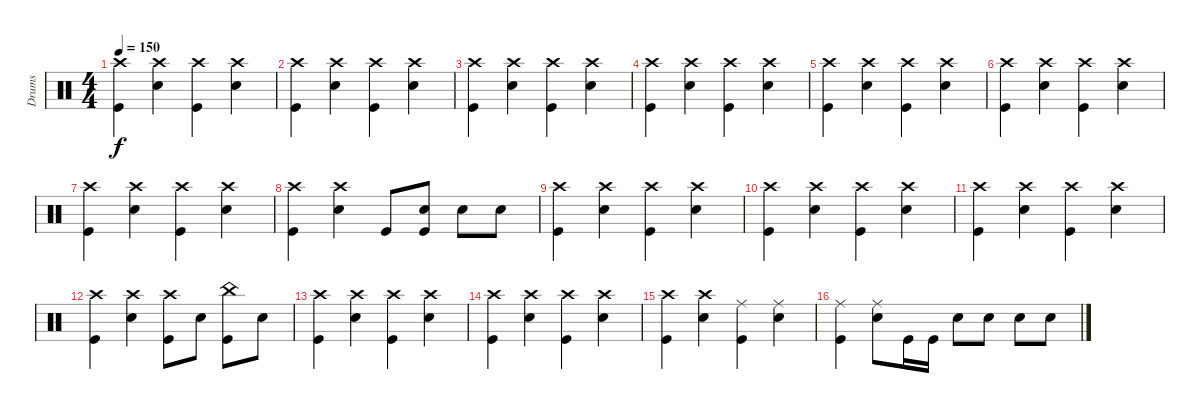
\track ("Drums" "Drums") {instrument percussion}
\staff {score}
\articulation defaults
\ts (4 4)
\tempo 150
\clef neutral
\ks c
("Kick (hit)" "Crash high (hit)").4{dy f} ("Snare (hit) 2" "Crash high (hit)").4 ("Kick (hit)" "Crash high (hit)").4 ("Snare (hit) 2" "Crash high (hit)").4 |
("Kick (hit)" "Crash high (hit)").4 ("Snare (hit) 2" "Crash high (hit)").4 ("Kick (hit)" "Crash high (hit)").4 ("Snare (hit) 2" "Crash high (hit)").4 |
("Kick (hit)" "Crash high (hit)").4 ("Snare (hit) 2" "Crash high (hit)").4 ("Kick (hit)" "Crash high (hit)").4 ("Snare (hit) 2" "Crash high (hit)").4 |
("Kick (hit)" "Crash high (hit)").4 ("Snare (hit) 2" "Crash high (hit)").4 ("Kick (hit)" "Crash high (hit)").4 ("Snare (hit) 2" "Crash high (hit)").4 |
("Kick (hit)" "Crash high (hit)").4 ("Snare (hit) 2" "Crash high (hit)").4 ("Kick (hit)" "Crash high (hit)").4 ("Snare (hit) 2" "Crash high (hit)").4 |
("Kick (hit)" "Crash high (hit)").4 ("Snare (hit) 2" "Crash high (hit)").4 ("Kick (hit)" "Crash high (hit)").4 ("Snare (hit) 2" "Crash high (hit)").4 |
("Kick (hit)" "Crash high (hit)").4 ("Snare (hit) 2" "Crash high (hit)").4 ("Kick (hit)" "Crash high (hit)").4 ("Snare (hit) 2" "Crash high (hit)").4 |
("Kick (hit)" "Crash high (hit)").4 ("Snare (hit) 2" "Crash high (hit)").4 "Kick (hit)".8 ("Kick (hit)" "Snare (hit) 2").8 "Snare (hit) 2".8 "Snare (hit) 2".8 |
("Kick (hit)" "Crash high (hit)").4 ("Snare (hit) 2" "Crash high (hit)").4 ("Kick (hit)" "Crash high (hit)").4 ("Snare (hit) 2" "Crash high (hit)").4 |
("Kick (hit)" "Crash high (hit)").4 ("Snare (hit) 2" "Crash high (hit)").4 ("Kick (hit)" "Crash high (hit)").4 ("Snare (hit) 2" "Crash high (hit)").4 |
("Kick (hit)" "Crash high (hit)").4 ("Snare (hit) 2" "Crash high (hit)").4 ("Kick (hit)" "Crash high (hit)").4 ("Snare (hit) 2" "Crash high (hit)").4 |
("Kick (hit)" "Crash high (hit)").4 ("Snare (hit) 2" "Crash high (hit)").4 ("Kick (hit)" "Crash high (hit)").8 "Snare (hit) 2".8 ("Kick (hit)" "China (hit)").8 "Snare (hit) 2".8 |
("Kick (hit)" "Crash high (hit)").4 ("Snare (hit) 2" "Crash high (hit)").4 ("Kick (hit)" "Crash high (hit)").4 ("Snare (hit) 2" "Crash high (hit)").4 |
("Kick (hit)" "Crash high (hit)").4 ("Snare (hit) 2" "Crash high (hit)").4 ("Kick (hit)" "Crash high (hit)").4 ("Snare (hit) 2" "Crash high (hit)").4 |
("Kick (hit)" "Crash high (hit)").4 ("Snare (hit) 2" "Crash high (hit)").4 ("Kick (hit)" "Ride (middle)").4 ("Snare (hit) 2" "Ride (middle)").4 |
("Kick (hit)" "Ride (middle)").4 ("Snare (hit) 2" "Ride (middle)").8 "Kick (hit)".16 "Kick (hit)".16 "Snare (hit) 2".8 "Snare (hit) 2".8 "Snare (hit) 2".8 "Snare (hit) 2".8
